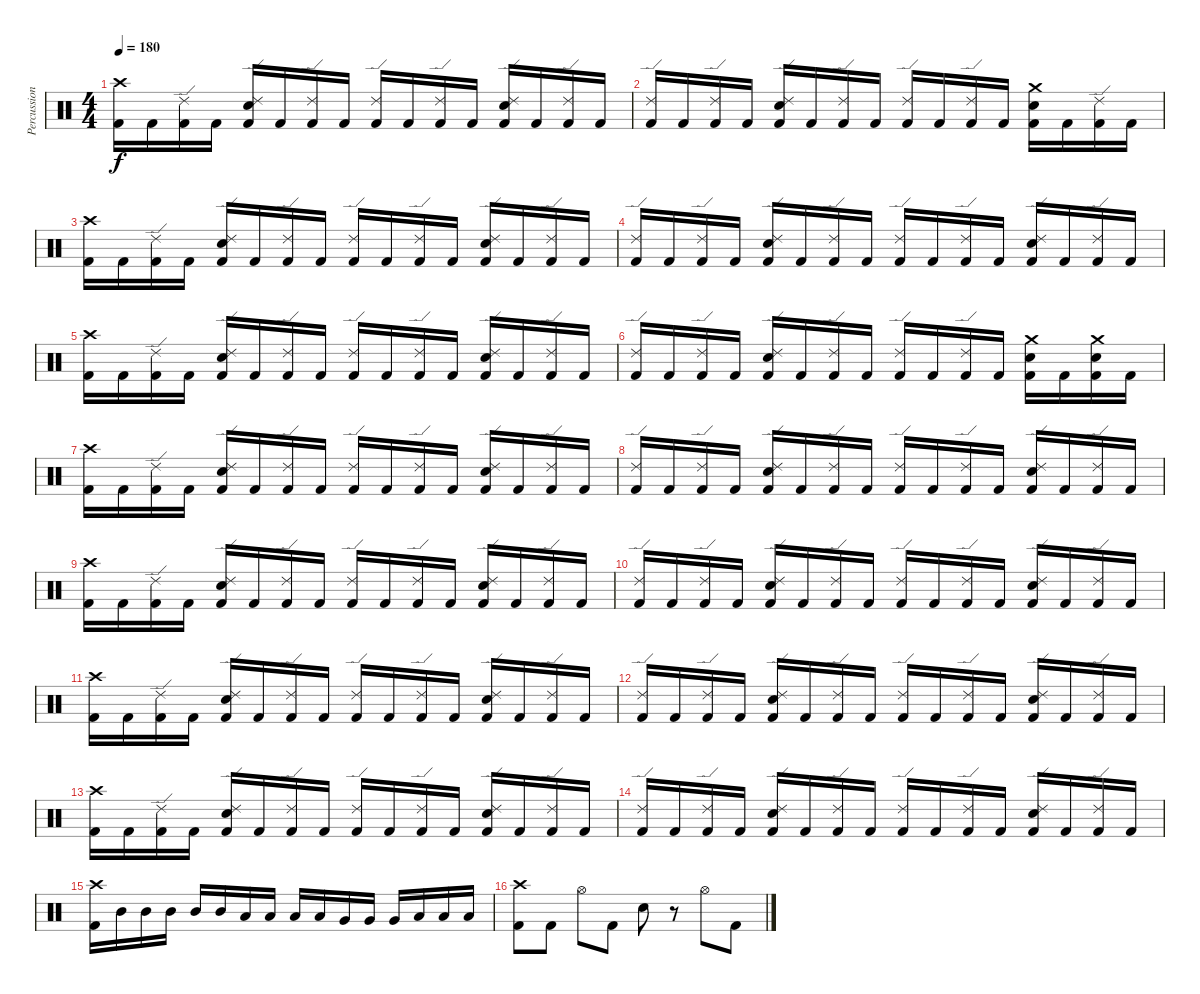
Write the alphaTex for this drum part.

\track ("Percussion" "Percussion") {instrument percussion}
\staff {score}
\articulation defaults
\ts (4 4)
\tempo 180
\clef neutral
\ks c
("Crash high (hit)" "Kick (hit) 2").16{dy f} "Kick (hit) 2".16 ("Ride (edge) 2" "Kick (hit) 2").16 "Kick (hit) 2".16 ("Ride (edge) 2" "Snare (hit) 2" "Kick (hit) 2").16 "Kick (hit) 2".16 ("Ride (edge) 2" "Kick (hit) 2").16 "Kick (hit) 2".16 ("Ride (edge) 2" "Kick (hit) 2").16 "Kick (hit) 2".16 ("Ride (edge) 2" "Kick (hit) 2").16 "Kick (hit) 2".16 ("Ride (edge) 2" "Snare (hit) 2" "Kick (hit) 2").16 "Kick (hit) 2".16 ("Ride (edge) 2" "Kick (hit) 2").16 "Kick (hit) 2".16 |
("Ride (edge) 2" "Kick (hit) 2").16 "Kick (hit) 2".16 ("Ride (edge) 2" "Kick (hit) 2").16 "Kick (hit) 2".16 ("Ride (edge) 2" "Snare (hit) 2" "Kick (hit) 2").16 "Kick (hit) 2".16 ("Ride (edge) 2" "Kick (hit) 2").16 "Kick (hit) 2".16 ("Ride (edge) 2" "Kick (hit) 2").16 "Kick (hit) 2".16 ("Ride (edge) 2" "Kick (hit) 2").16 "Kick (hit) 2".16 ("Crash medium (hit)" "Snare (hit) 2" "Kick (hit) 2").16 "Kick (hit) 2".16 ("Ride (edge) 2" "Kick (hit) 2").16 "Kick (hit) 2".16 |
("Crash high (hit)" "Kick (hit) 2").16 "Kick (hit) 2".16 ("Ride (edge) 2" "Kick (hit) 2").16 "Kick (hit) 2".16 ("Ride (edge) 2" "Snare (hit) 2" "Kick (hit) 2").16 "Kick (hit) 2".16 ("Ride (edge) 2" "Kick (hit) 2").16 "Kick (hit) 2".16 ("Ride (edge) 2" "Kick (hit) 2").16 "Kick (hit) 2".16 ("Ride (edge) 2" "Kick (hit) 2").16 "Kick (hit) 2".16 ("Ride (edge) 2" "Snare (hit) 2" "Kick (hit) 2").16 "Kick (hit) 2".16 ("Ride (edge) 2" "Kick (hit) 2").16 "Kick (hit) 2".16 |
("Ride (edge) 2" "Kick (hit) 2").16 "Kick (hit) 2".16 ("Ride (edge) 2" "Kick (hit) 2").16 "Kick (hit) 2".16 ("Ride (edge) 2" "Snare (hit) 2" "Kick (hit) 2").16 "Kick (hit) 2".16 ("Ride (edge) 2" "Kick (hit) 2").16 "Kick (hit) 2".16 ("Ride (edge) 2" "Kick (hit) 2").16 "Kick (hit) 2".16 ("Ride (edge) 2" "Kick (hit) 2").16 "Kick (hit) 2".16 ("Ride (edge) 2" "Snare (hit) 2" "Kick (hit) 2").16 "Kick (hit) 2".16 ("Ride (edge) 2" "Kick (hit) 2").16 "Kick (hit) 2".16 |
("Crash high (hit)" "Kick (hit) 2").16 "Kick (hit) 2".16 ("Ride (edge) 2" "Kick (hit) 2").16 "Kick (hit) 2".16 ("Ride (edge) 2" "Snare (hit) 2" "Kick (hit) 2").16 "Kick (hit) 2".16 ("Ride (edge) 2" "Kick (hit) 2").16 "Kick (hit) 2".16 ("Ride (edge) 2" "Kick (hit) 2").16 "Kick (hit) 2".16 ("Ride (edge) 2" "Kick (hit) 2").16 "Kick (hit) 2".16 ("Ride (edge) 2" "Snare (hit) 2" "Kick (hit) 2").16 "Kick (hit) 2".16 ("Ride (edge) 2" "Kick (hit) 2").16 "Kick (hit) 2".16 |
("Ride (edge) 2" "Kick (hit) 2").16 "Kick (hit) 2".16 ("Ride (edge) 2" "Kick (hit) 2").16 "Kick (hit) 2".16 ("Ride (edge) 2" "Snare (hit) 2" "Kick (hit) 2").16 "Kick (hit) 2".16 ("Ride (edge) 2" "Kick (hit) 2").16 "Kick (hit) 2".16 ("Ride (edge) 2" "Kick (hit) 2").16 "Kick (hit) 2".16 ("Ride (edge) 2" "Kick (hit) 2").16 "Kick (hit) 2".16 ("Crash medium (hit)" "Snare (hit) 2" "Kick (hit) 2").16 "Kick (hit) 2".16 ("Crash medium (hit)" "Snare (hit) 2" "Kick (hit) 2").16 "Kick (hit) 2".16 |
("Crash high (hit)" "Kick (hit) 2").16 "Kick (hit) 2".16 ("Ride (edge) 2" "Kick (hit) 2").16 "Kick (hit) 2".16 ("Ride (edge) 2" "Snare (hit) 2" "Kick (hit) 2").16 "Kick (hit) 2".16 ("Ride (edge) 2" "Kick (hit) 2").16 "Kick (hit) 2".16 ("Ride (edge) 2" "Kick (hit) 2").16 "Kick (hit) 2".16 ("Ride (edge) 2" "Kick (hit) 2").16 "Kick (hit) 2".16 ("Ride (edge) 2" "Snare (hit) 2" "Kick (hit) 2").16 "Kick (hit) 2".16 ("Ride (edge) 2" "Kick (hit) 2").16 "Kick (hit) 2".16 |
("Ride (edge) 2" "Kick (hit) 2").16 "Kick (hit) 2".16 ("Ride (edge) 2" "Kick (hit) 2").16 "Kick (hit) 2".16 ("Ride (edge) 2" "Snare (hit) 2" "Kick (hit) 2").16 "Kick (hit) 2".16 ("Ride (edge) 2" "Kick (hit) 2").16 "Kick (hit) 2".16 ("Ride (edge) 2" "Kick (hit) 2").16 "Kick (hit) 2".16 ("Ride (edge) 2" "Kick (hit) 2").16 "Kick (hit) 2".16 ("Ride (edge) 2" "Snare (hit) 2" "Kick (hit) 2").16 "Kick (hit) 2".16 ("Ride (edge) 2" "Kick (hit) 2").16 "Kick (hit) 2".16 |
("Crash high (hit)" "Kick (hit) 2").16 "Kick (hit) 2".16 ("Ride (edge) 2" "Kick (hit) 2").16 "Kick (hit) 2".16 ("Ride (edge) 2" "Snare (hit) 2" "Kick (hit) 2").16 "Kick (hit) 2".16 ("Ride (edge) 2" "Kick (hit) 2").16 "Kick (hit) 2".16 ("Ride (edge) 2" "Kick (hit) 2").16 "Kick (hit) 2".16 ("Ride (edge) 2" "Kick (hit) 2").16 "Kick (hit) 2".16 ("Ride (edge) 2" "Snare (hit) 2" "Kick (hit) 2").16 "Kick (hit) 2".16 ("Ride (edge) 2" "Kick (hit) 2").16 "Kick (hit) 2".16 |
("Ride (edge) 2" "Kick (hit) 2").16 "Kick (hit) 2".16 ("Ride (edge) 2" "Kick (hit) 2").16 "Kick (hit) 2".16 ("Ride (edge) 2" "Snare (hit) 2" "Kick (hit) 2").16 "Kick (hit) 2".16 ("Ride (edge) 2" "Kick (hit) 2").16 "Kick (hit) 2".16 ("Ride (edge) 2" "Kick (hit) 2").16 "Kick (hit) 2".16 ("Ride (edge) 2" "Kick (hit) 2").16 "Kick (hit) 2".16 ("Ride (edge) 2" "Snare (hit) 2" "Kick (hit) 2").16 "Kick (hit) 2".16 ("Ride (edge) 2" "Kick (hit) 2").16 "Kick (hit) 2".16 |
("Crash high (hit)" "Kick (hit) 2").16 "Kick (hit) 2".16 ("Ride (edge) 2" "Kick (hit) 2").16 "Kick (hit) 2".16 ("Ride (edge) 2" "Snare (hit) 2" "Kick (hit) 2").16 "Kick (hit) 2".16 ("Ride (edge) 2" "Kick (hit) 2").16 "Kick (hit) 2".16 ("Ride (edge) 2" "Kick (hit) 2").16 "Kick (hit) 2".16 ("Ride (edge) 2" "Kick (hit) 2").16 "Kick (hit) 2".16 ("Ride (edge) 2" "Snare (hit) 2" "Kick (hit) 2").16 "Kick (hit) 2".16 ("Ride (edge) 2" "Kick (hit) 2").16 "Kick (hit) 2".16 |
("Ride (edge) 2" "Kick (hit) 2").16 "Kick (hit) 2".16 ("Ride (edge) 2" "Kick (hit) 2").16 "Kick (hit) 2".16 ("Ride (edge) 2" "Snare (hit) 2" "Kick (hit) 2").16 "Kick (hit) 2".16 ("Ride (edge) 2" "Kick (hit) 2").16 "Kick (hit) 2".16 ("Ride (edge) 2" "Kick (hit) 2").16 "Kick (hit) 2".16 ("Ride (edge) 2" "Kick (hit) 2").16 "Kick (hit) 2".16 ("Ride (edge) 2" "Snare (hit) 2" "Kick (hit) 2").16 "Kick (hit) 2".16 ("Ride (edge) 2" "Kick (hit) 2").16 "Kick (hit) 2".16 |
("Crash high (hit)" "Kick (hit) 2").16 "Kick (hit) 2".16 ("Ride (edge) 2" "Kick (hit) 2").16 "Kick (hit) 2".16 ("Ride (edge) 2" "Snare (hit) 2" "Kick (hit) 2").16 "Kick (hit) 2".16 ("Ride (edge) 2" "Kick (hit) 2").16 "Kick (hit) 2".16 ("Ride (edge) 2" "Kick (hit) 2").16 "Kick (hit) 2".16 ("Ride (edge) 2" "Kick (hit) 2").16 "Kick (hit) 2".16 ("Ride (edge) 2" "Snare (hit) 2" "Kick (hit) 2").16 "Kick (hit) 2".16 ("Ride (edge) 2" "Kick (hit) 2").16 "Kick (hit) 2".16 |
("Ride (edge) 2" "Kick (hit) 2").16 "Kick (hit) 2".16 ("Ride (edge) 2" "Kick (hit) 2").16 "Kick (hit) 2".16 ("Ride (edge) 2" "Snare (hit) 2" "Kick (hit) 2").16 "Kick (hit) 2".16 ("Ride (edge) 2" "Kick (hit) 2").16 "Kick (hit) 2".16 ("Ride (edge) 2" "Kick (hit) 2").16 "Kick (hit) 2".16 ("Ride (edge) 2" "Kick (hit) 2").16 "Kick (hit) 2".16 ("Ride (edge) 2" "Snare (hit) 2" "Kick (hit) 2").16 "Kick (hit) 2".16 ("Ride (edge) 2" "Kick (hit) 2").16 "Kick (hit) 2".16 |
("Crash high (hit)" "Kick (hit) 2").16 "Mid Tom (hit)".16 "Mid Tom (hit)".16 "Mid Tom (hit)".16 "Mid Tom (hit)".16 "Mid Tom (hit)".16 "Low Tom (hit)".16 "Low Tom (hit)".16 "Low Tom (hit)".16 "Low Tom (hit)".16 "Very Low Tom (hit)".16 "Very Low Tom (hit)".16 "Very Low Tom (hit)".16 "Low Floor Tom (hit)".16 "Low Floor Tom (hit)".16 "Low Floor Tom (hit)".16 |
("Crash high (hit)" "Kick (hit) 2").8 "Kick (hit) 2".8 "Hi-Hat (open)".8 "Kick (hit) 2".8 "Snare (hit) 2".8 r.8 "Hi-Hat (open)".8 "Kick (hit) 2".8
